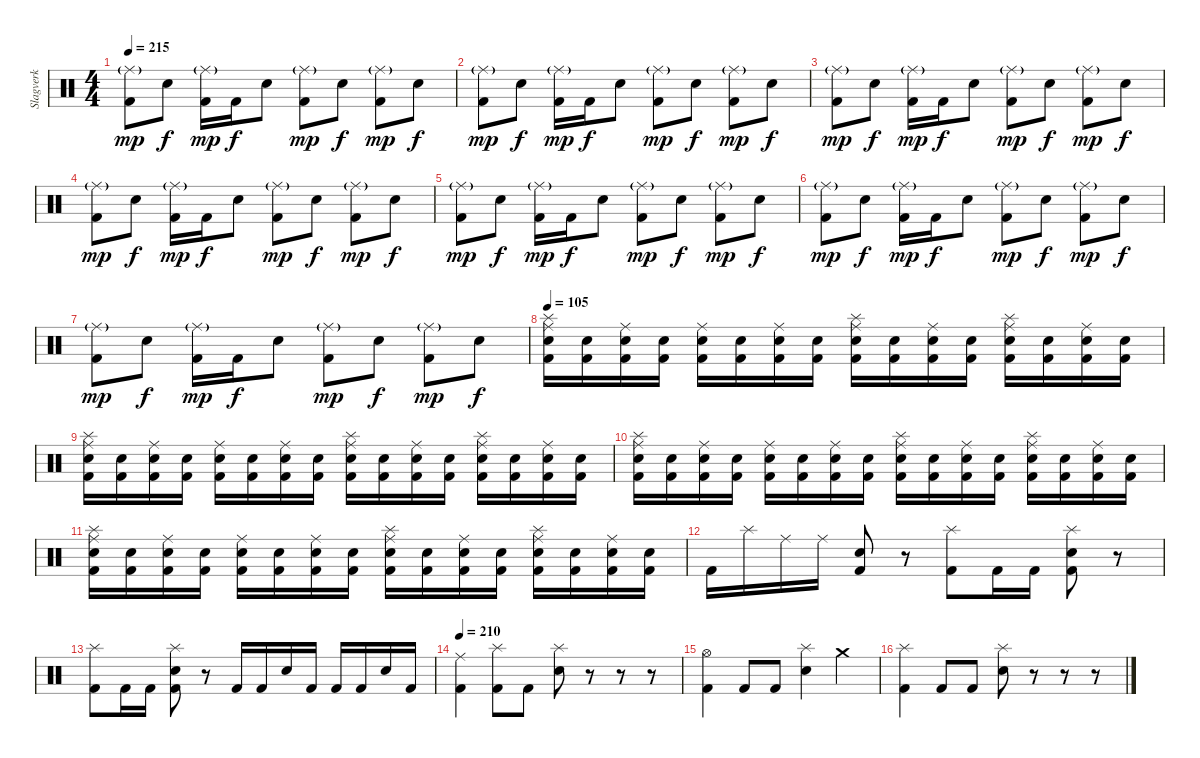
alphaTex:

\track ("Slagverk" "Slagverk") {instrument percussion}
\staff {score}
\articulation defaults
\ts (4 4)
\tempo 215
\clef neutral
\ks c
("Ride (middle)"{g} "Kick (hit) 2").8{dy mp} "Electric Snare (hit)".8{dy f} ("Ride (middle)"{g} "Kick (hit) 2").16{dy mp} "Kick (hit) 2".16{dy f} "Electric Snare (hit)".8 ("Ride (middle)"{g} "Kick (hit) 2").8{dy mp} "Electric Snare (hit)".8{dy f} ("Ride (middle)"{g} "Kick (hit) 2").8{dy mp} "Electric Snare (hit)".8{dy f} |
("Ride (middle)"{g} "Kick (hit) 2").8{dy mp} "Electric Snare (hit)".8{dy f} ("Ride (middle)"{g} "Kick (hit) 2").16{dy mp} "Kick (hit) 2".16{dy f} "Electric Snare (hit)".8 ("Ride (middle)"{g} "Kick (hit) 2").8{dy mp} "Electric Snare (hit)".8{dy f} ("Ride (middle)"{g} "Kick (hit) 2").8{dy mp} "Electric Snare (hit)".8{dy f} |
("Ride (middle)"{g} "Kick (hit) 2").8{dy mp} "Electric Snare (hit)".8{dy f} ("Ride (middle)"{g} "Kick (hit) 2").16{dy mp} "Kick (hit) 2".16{dy f} "Electric Snare (hit)".8 ("Ride (middle)"{g} "Kick (hit) 2").8{dy mp} "Electric Snare (hit)".8{dy f} ("Ride (middle)"{g} "Kick (hit) 2").8{dy mp} "Electric Snare (hit)".8{dy f} |
("Ride (middle)"{g} "Kick (hit) 2").8{dy mp} "Electric Snare (hit)".8{dy f} ("Ride (middle)"{g} "Kick (hit) 2").16{dy mp} "Kick (hit) 2".16{dy f} "Electric Snare (hit)".8 ("Ride (middle)"{g} "Kick (hit) 2").8{dy mp} "Electric Snare (hit)".8{dy f} ("Ride (middle)"{g} "Kick (hit) 2").8{dy mp} "Electric Snare (hit)".8{dy f} |
("Ride (middle)"{g} "Kick (hit) 2").8{dy mp} "Electric Snare (hit)".8{dy f} ("Ride (middle)"{g} "Kick (hit) 2").16{dy mp} "Kick (hit) 2".16{dy f} "Electric Snare (hit)".8 ("Ride (middle)"{g} "Kick (hit) 2").8{dy mp} "Electric Snare (hit)".8{dy f} ("Ride (middle)"{g} "Kick (hit) 2").8{dy mp} "Electric Snare (hit)".8{dy f} |
("Ride (middle)"{g} "Kick (hit) 2").8{dy mp} "Electric Snare (hit)".8{dy f} ("Ride (middle)"{g} "Kick (hit) 2").16{dy mp} "Kick (hit) 2".16{dy f} "Electric Snare (hit)".8 ("Ride (middle)"{g} "Kick (hit) 2").8{dy mp} "Electric Snare (hit)".8{dy f} ("Ride (middle)"{g} "Kick (hit) 2").8{dy mp} "Electric Snare (hit)".8{dy f} |
("Ride (middle)"{g} "Kick (hit) 2").8{dy mp} "Electric Snare (hit)".8{dy f} ("Ride (middle)"{g} "Kick (hit) 2").16{dy mp} "Kick (hit) 2".16{dy f} "Electric Snare (hit)".8 ("Ride (middle)"{g} "Kick (hit) 2").8{dy mp} "Electric Snare (hit)".8{dy f} ("Ride (middle)"{g} "Kick (hit) 2").8{dy mp} "Electric Snare (hit)".8{dy f} |
\tempo 105
("Ride (middle)" "Splash (hit)" "Electric Snare (hit)" "Kick (hit) 2").16 ("Electric Snare (hit)" "Kick (hit) 2").16 ("Ride (middle)" "Electric Snare (hit)" "Kick (hit) 2").16 ("Electric Snare (hit)" "Kick (hit) 2").16 ("Ride (middle)" "Electric Snare (hit)" "Kick (hit) 2").16 ("Electric Snare (hit)" "Kick (hit) 2").16 ("Ride (middle)" "Electric Snare (hit)" "Kick (hit) 2").16 ("Electric Snare (hit)" "Kick (hit) 2").16 ("Ride (middle)" "Splash (hit)" "Electric Snare (hit)" "Kick (hit) 2").16 ("Electric Snare (hit)" "Kick (hit) 2").16 ("Ride (middle)" "Electric Snare (hit)" "Kick (hit) 2").16 ("Electric Snare (hit)" "Kick (hit) 2").16 ("Ride (middle)" "Splash (hit)" "Electric Snare (hit)" "Kick (hit) 2").16 ("Electric Snare (hit)" "Kick (hit) 2").16 ("Ride (middle)" "Electric Snare (hit)" "Kick (hit) 2").16 ("Electric Snare (hit)" "Kick (hit) 2").16 |
("Ride (middle)" "Splash (hit)" "Electric Snare (hit)" "Kick (hit) 2").16 ("Electric Snare (hit)" "Kick (hit) 2").16 ("Ride (middle)" "Electric Snare (hit)" "Kick (hit) 2").16 ("Electric Snare (hit)" "Kick (hit) 2").16 ("Ride (middle)" "Electric Snare (hit)" "Kick (hit) 2").16 ("Electric Snare (hit)" "Kick (hit) 2").16 ("Ride (middle)" "Electric Snare (hit)" "Kick (hit) 2").16 ("Electric Snare (hit)" "Kick (hit) 2").16 ("Ride (middle)" "Splash (hit)" "Electric Snare (hit)" "Kick (hit) 2").16 ("Electric Snare (hit)" "Kick (hit) 2").16 ("Ride (middle)" "Electric Snare (hit)" "Kick (hit) 2").16 ("Electric Snare (hit)" "Kick (hit) 2").16 ("Ride (middle)" "Splash (hit)" "Electric Snare (hit)" "Kick (hit) 2").16 ("Electric Snare (hit)" "Kick (hit) 2").16 ("Ride (middle)" "Electric Snare (hit)" "Kick (hit) 2").16 ("Electric Snare (hit)" "Kick (hit) 2").16 |
("Ride (middle)" "Splash (hit)" "Electric Snare (hit)" "Kick (hit) 2").16 ("Electric Snare (hit)" "Kick (hit) 2").16 ("Ride (middle)" "Electric Snare (hit)" "Kick (hit) 2").16 ("Electric Snare (hit)" "Kick (hit) 2").16 ("Ride (middle)" "Electric Snare (hit)" "Kick (hit) 2").16 ("Electric Snare (hit)" "Kick (hit) 2").16 ("Ride (middle)" "Electric Snare (hit)" "Kick (hit) 2").16 ("Electric Snare (hit)" "Kick (hit) 2").16 ("Ride (middle)" "Splash (hit)" "Electric Snare (hit)" "Kick (hit) 2").16 ("Electric Snare (hit)" "Kick (hit) 2").16 ("Ride (middle)" "Electric Snare (hit)" "Kick (hit) 2").16 ("Electric Snare (hit)" "Kick (hit) 2").16 ("Ride (middle)" "Splash (hit)" "Electric Snare (hit)" "Kick (hit) 2").16 ("Electric Snare (hit)" "Kick (hit) 2").16 ("Ride (middle)" "Electric Snare (hit)" "Kick (hit) 2").16 ("Electric Snare (hit)" "Kick (hit) 2").16 |
("Ride (middle)" "Splash (hit)" "Electric Snare (hit)" "Kick (hit) 2").16 ("Electric Snare (hit)" "Kick (hit) 2").16 ("Ride (middle)" "Electric Snare (hit)" "Kick (hit) 2").16 ("Electric Snare (hit)" "Kick (hit) 2").16 ("Ride (middle)" "Electric Snare (hit)" "Kick (hit) 2").16 ("Electric Snare (hit)" "Kick (hit) 2").16 ("Ride (middle)" "Electric Snare (hit)" "Kick (hit) 2").16 ("Electric Snare (hit)" "Kick (hit) 2").16 ("Ride (middle)" "Splash (hit)" "Electric Snare (hit)" "Kick (hit) 2").16 ("Electric Snare (hit)" "Kick (hit) 2").16 ("Ride (middle)" "Electric Snare (hit)" "Kick (hit) 2").16 ("Electric Snare (hit)" "Kick (hit) 2").16 ("Ride (middle)" "Splash (hit)" "Electric Snare (hit)" "Kick (hit) 2").16 ("Electric Snare (hit)" "Kick (hit) 2").16 ("Ride (middle)" "Electric Snare (hit)" "Kick (hit) 2").16 ("Electric Snare (hit)" "Kick (hit) 2").16 |
"Kick (hit) 2".16 "Splash (hit)".16 "Ride (middle)".16 "Ride (middle)".16 ("Electric Snare (hit)" "Kick (hit) 2").8 r.8 ("Splash (hit)" "Kick (hit) 2").8 "Kick (hit) 2".16 "Kick (hit) 2".16 ("Splash (hit)" "Electric Snare (hit)" "Kick (hit) 2").8 r.8 |
("Splash (hit)" "Kick (hit) 2").8 "Kick (hit) 2".16 "Kick (hit) 2".16 ("Splash (hit)" "Electric Snare (hit)" "Kick (hit) 2").8 r.8 "Kick (hit) 2".16 "Kick (hit) 2".16 "Electric Snare (hit)".16 "Kick (hit) 2".16 "Kick (hit) 2".16 "Kick (hit) 2".16 "Electric Snare (hit)".16 "Kick (hit) 2".16 |
\tempo 210
("Ride (middle)" "Kick (hit) 2").4 ("Splash (hit)" "Kick (hit) 2").8 "Kick (hit) 2".8 ("Splash (hit)" "Electric Snare (hit)").8 r.8 r.8 r.8 |
("Hi-Hat (open)" "Kick (hit) 2").4 "Kick (hit) 2".8 "Kick (hit) 2".8 ("Splash (hit)" "Electric Snare (hit)").4 "Crash medium (hit)".4 |
("Splash (hit)" "Kick (hit) 2").4 "Kick (hit) 2".8 "Kick (hit) 2".8 ("Splash (hit)" "Electric Snare (hit)").8 r.8 r.8 r.8
